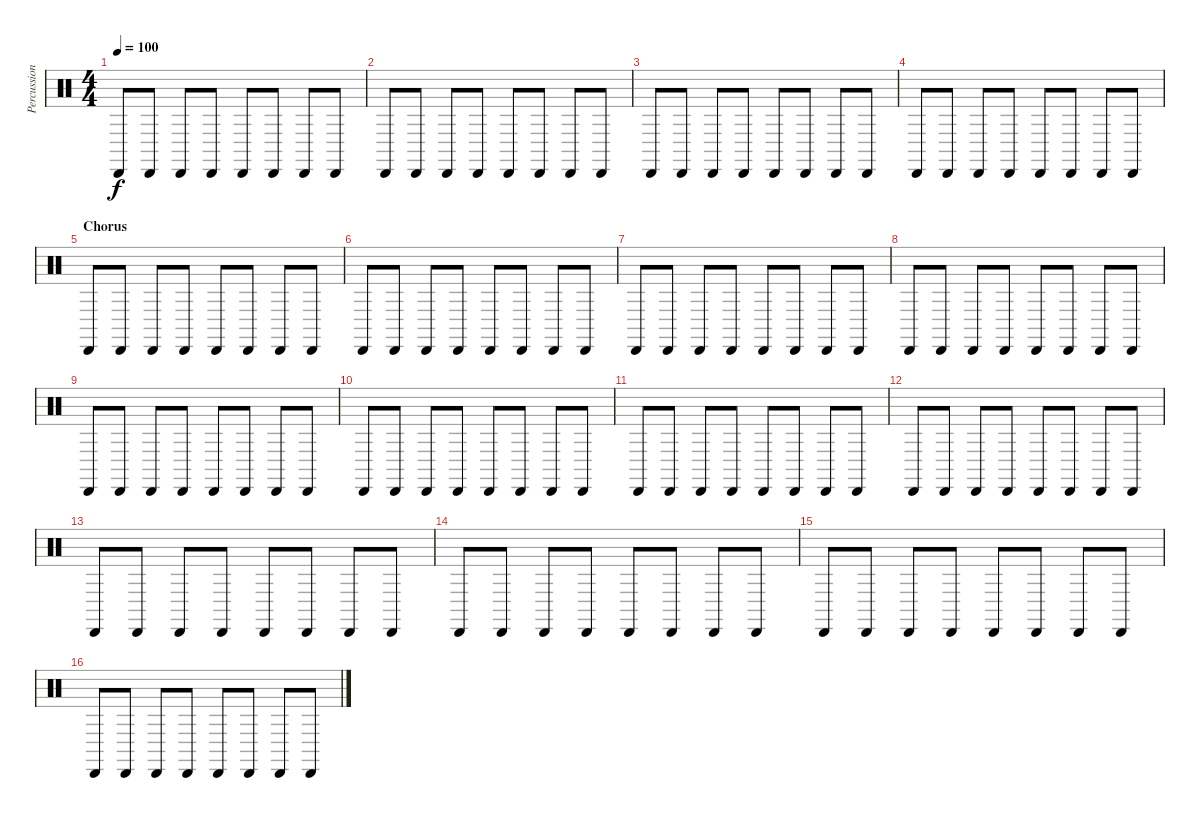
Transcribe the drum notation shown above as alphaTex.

\track ("Percussion" "Percussion") {instrument percussion}
\staff {score}
\articulation defaults
\ts (4 4)
\tempo 100
\clef neutral
\ks c "Cabasa (hit)".8{dy f} "Cabasa (hit)".8 "Cabasa (hit)".8 "Cabasa (hit)".8 "Cabasa (hit)".8 "Cabasa (hit)".8 "Cabasa (hit)".8 "Cabasa (hit)".8
|
"Cabasa (hit)".8 "Cabasa (hit)".8 "Cabasa (hit)".8 "Cabasa (hit)".8 "Cabasa (hit)".8 "Cabasa (hit)".8 "Cabasa (hit)".8 "Cabasa (hit)".8 |
"Cabasa (hit)".8 "Cabasa (hit)".8 "Cabasa (hit)".8 "Cabasa (hit)".8 "Cabasa (hit)".8 "Cabasa (hit)".8 "Cabasa (hit)".8 "Cabasa (hit)".8 |
"Cabasa (hit)".8 "Cabasa (hit)".8 "Cabasa (hit)".8 "Cabasa (hit)".8 "Cabasa (hit)".8 "Cabasa (hit)".8 "Cabasa (hit)".8 "Cabasa (hit)".8 |
\section ("" "Chorus")
"Cabasa (hit)".8 "Cabasa (hit)".8 "Cabasa (hit)".8 "Cabasa (hit)".8 "Cabasa (hit)".8 "Cabasa (hit)".8 "Cabasa (hit)".8 "Cabasa (hit)".8 |
"Cabasa (hit)".8 "Cabasa (hit)".8 "Cabasa (hit)".8 "Cabasa (hit)".8 "Cabasa (hit)".8 "Cabasa (hit)".8 "Cabasa (hit)".8 "Cabasa (hit)".8 |
"Cabasa (hit)".8 "Cabasa (hit)".8 "Cabasa (hit)".8 "Cabasa (hit)".8 "Cabasa (hit)".8 "Cabasa (hit)".8 "Cabasa (hit)".8 "Cabasa (hit)".8 |
"Cabasa (hit)".8 "Cabasa (hit)".8 "Cabasa (hit)".8 "Cabasa (hit)".8 "Cabasa (hit)".8 "Cabasa (hit)".8 "Cabasa (hit)".8 "Cabasa (hit)".8 |
"Cabasa (hit)".8 "Cabasa (hit)".8 "Cabasa (hit)".8 "Cabasa (hit)".8 "Cabasa (hit)".8 "Cabasa (hit)".8 "Cabasa (hit)".8 "Cabasa (hit)".8 |
"Cabasa (hit)".8 "Cabasa (hit)".8 "Cabasa (hit)".8 "Cabasa (hit)".8 "Cabasa (hit)".8 "Cabasa (hit)".8 "Cabasa (hit)".8 "Cabasa (hit)".8 |
"Cabasa (hit)".8 "Cabasa (hit)".8 "Cabasa (hit)".8 "Cabasa (hit)".8 "Cabasa (hit)".8 "Cabasa (hit)".8 "Cabasa (hit)".8 "Cabasa (hit)".8 |
"Cabasa (hit)".8 "Cabasa (hit)".8 "Cabasa (hit)".8 "Cabasa (hit)".8 "Cabasa (hit)".8 "Cabasa (hit)".8 "Cabasa (hit)".8 "Cabasa (hit)".8 |
"Cabasa (hit)".8 "Cabasa (hit)".8 "Cabasa (hit)".8 "Cabasa (hit)".8 "Cabasa (hit)".8 "Cabasa (hit)".8 "Cabasa (hit)".8 "Cabasa (hit)".8 |
"Cabasa (hit)".8 "Cabasa (hit)".8 "Cabasa (hit)".8 "Cabasa (hit)".8 "Cabasa (hit)".8 "Cabasa (hit)".8 "Cabasa (hit)".8 "Cabasa (hit)".8 |
"Cabasa (hit)".8 "Cabasa (hit)".8 "Cabasa (hit)".8 "Cabasa (hit)".8 "Cabasa (hit)".8 "Cabasa (hit)".8 "Cabasa (hit)".8 "Cabasa (hit)".8 |
"Cabasa (hit)".8 "Cabasa (hit)".8 "Cabasa (hit)".8 "Cabasa (hit)".8 "Cabasa (hit)".8 "Cabasa (hit)".8 "Cabasa (hit)".8 "Cabasa (hit)".8
